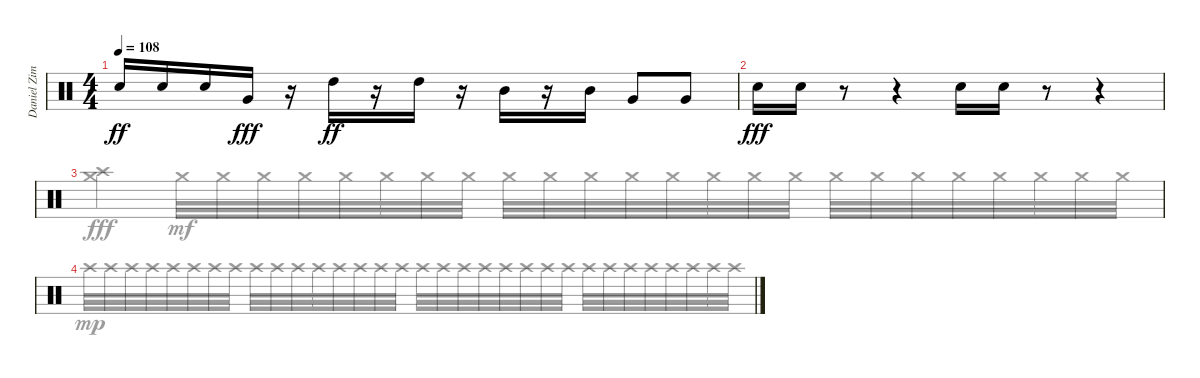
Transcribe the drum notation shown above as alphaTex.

\track ("Daniel Zimmermann Drums" "Daniel Zim") {instrument percussion}
\staff {score}
\articulation defaults
\voice
\ts (4 4)
\tempo 108
\clef neutral
\ks c "Snare (hit) 2".16{dy ff} "Snare (hit) 2".16 "Snare (hit) 2".16 "Very Low Tom (hit)".16{dy fff}
r.16 "High Tom (hit)".16{dy ff} r.16 "High Tom (hit)".16 r.16 "Mid Tom (hit)".16 r.16 "Mid Tom (hit)".16 "Very Low Tom (hit)".8 "Very Low Tom (hit)".8 |
"Snare (hit) 2".16{dy fff} "Snare (hit) 2".16 r.8 r.4 "Snare (hit) 2".16 "Snare (hit) 2".16 r.8 r.4 |
|
|
|
\voice
\clef neutral
\ottava regular
\simile none
\ks c
|
|
("Crash medium (hit)" "Crash high (hit)").4{dy fff} "Crash medium (hit)".32{dy mf} "Crash medium (hit)".32 "Crash medium (hit)".32 "Crash medium (hit)".32 "Crash medium (hit)".32 "Crash medium (hit)".32 "Crash medium (hit)".32 "Crash medium (hit)".32 "Crash medium (hit)".32 "Crash medium (hit)".32 "Crash medium (hit)".32 "Crash medium (hit)".32 "Crash medium (hit)".32 "Crash medium (hit)".32 "Crash medium (hit)".32 "Crash medium (hit)".32 "Crash medium (hit)".32 "Crash medium (hit)".32 "Crash medium (hit)".32 "Crash medium (hit)".32 "Crash medium (hit)".32 "Crash medium (hit)".32 "Crash medium (hit)".32 "Crash medium (hit)".32 |
"Crash high (hit)".32{dy mp} "Crash high (hit)".32 "Crash high (hit)".32 "Crash high (hit)".32 "Crash high (hit)".32 "Crash high (hit)".32 "Crash high (hit)".32 "Crash high (hit)".32 "Crash high (hit)".32 "Crash high (hit)".32 "Crash high (hit)".32 "Crash high (hit)".32 "Crash high (hit)".32 "Crash high (hit)".32 "Crash high (hit)".32 "Crash high (hit)".32 "Crash high (hit)".32 "Crash high (hit)".32 "Crash high (hit)".32 "Crash high (hit)".32 "Crash high (hit)".32 "Crash high (hit)".32 "Crash high (hit)".32 "Crash high (hit)".32 "Crash high (hit)".32 "Crash high (hit)".32 "Crash high (hit)".32 "Crash high (hit)".32 "Crash high (hit)".32 "Crash high (hit)".32 "Crash high (hit)".32 "Crash high (hit)".32 |
|
